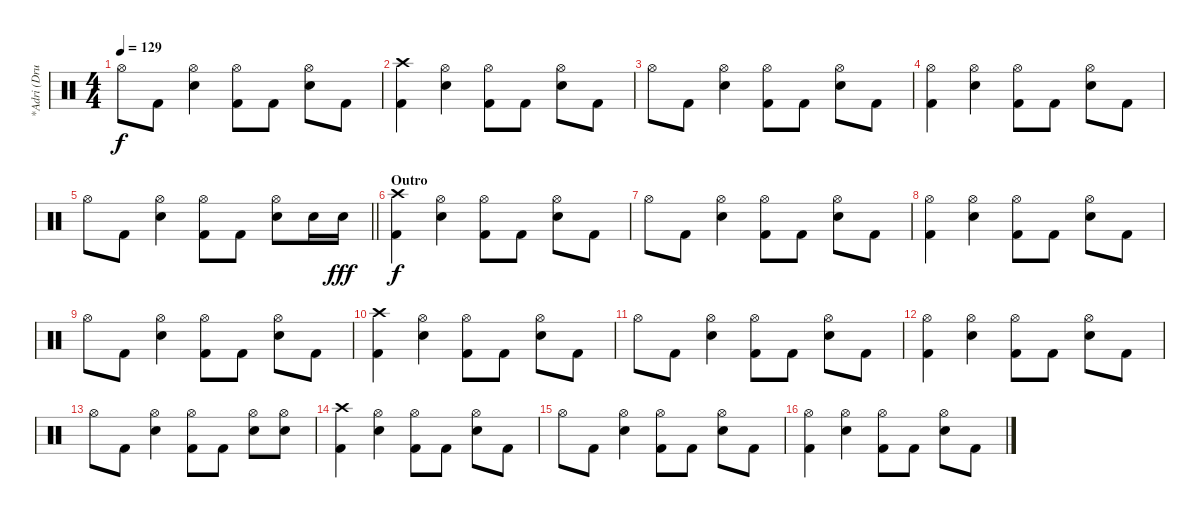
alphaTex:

\track ("*Adri (Drum)" "*Adri (Dru") {instrument percussion}
\staff {score}
\articulation defaults
\ts (4 4)
\tempo 129
\clef neutral
\ks c "Hi-Hat (open)".8{dy f} "Kick (hit) 2".8
("Hi-Hat (open)" "Snare (hit) 2").4 ("Hi-Hat (open)" "Kick (hit) 2").8 "Kick (hit) 2".8 ("Hi-Hat (open)" "Snare (hit) 2").8 "Kick (hit) 2".8 |
("Crash high (hit)" "Kick (hit) 2").4 ("Hi-Hat (open)" "Snare (hit) 2").4 ("Hi-Hat (open)" "Kick (hit) 2").8 "Kick (hit) 2".8 ("Hi-Hat (open)" "Snare (hit) 2").8 "Kick (hit) 2".8 |
"Hi-Hat (open)".8 "Kick (hit) 2".8 ("Hi-Hat (open)" "Snare (hit) 2").4 ("Hi-Hat (open)" "Kick (hit) 2").8 "Kick (hit) 2".8 ("Hi-Hat (open)" "Snare (hit) 2").8 "Kick (hit) 2".8 |
("Hi-Hat (open)" "Kick (hit) 2").4 ("Hi-Hat (open)" "Snare (hit) 2").4 ("Hi-Hat (open)" "Kick (hit) 2").8 "Kick (hit) 2".8 ("Hi-Hat (open)" "Snare (hit) 2").8 "Kick (hit) 2".8 |
\barLineRight lightlight "Hi-Hat (open)".8 "Kick (hit) 2".8
("Hi-Hat (open)" "Snare (hit) 2").4 ("Hi-Hat (open)" "Kick (hit) 2").8 "Kick (hit) 2".8 ("Hi-Hat (open)" "Snare (hit) 2").8 "Snare (hit) 2".16 "Snare (hit) 2".16{dy fff} |
\section ("" "Outro")
("Crash high (hit)" "Kick (hit) 2").4{dy f} ("Hi-Hat (open)" "Snare (hit) 2").4 ("Hi-Hat (open)" "Kick (hit) 2").8 "Kick (hit) 2".8 ("Hi-Hat (open)" "Snare (hit) 2").8 "Kick (hit) 2".8 |
"Hi-Hat (open)".8 "Kick (hit) 2".8 ("Hi-Hat (open)" "Snare (hit) 2").4 ("Hi-Hat (open)" "Kick (hit) 2").8 "Kick (hit) 2".8 ("Hi-Hat (open)" "Snare (hit) 2").8 "Kick (hit) 2".8 |
("Hi-Hat (open)" "Kick (hit) 2").4 ("Hi-Hat (open)" "Snare (hit) 2").4 ("Hi-Hat (open)" "Kick (hit) 2").8 "Kick (hit) 2".8 ("Hi-Hat (open)" "Snare (hit) 2").8 "Kick (hit) 2".8 |
"Hi-Hat (open)".8 "Kick (hit) 2".8 ("Hi-Hat (open)" "Snare (hit) 2").4 ("Hi-Hat (open)" "Kick (hit) 2").8 "Kick (hit) 2".8 ("Hi-Hat (open)" "Snare (hit) 2").8 "Kick (hit) 2".8 |
("Crash high (hit)" "Kick (hit) 2").4 ("Hi-Hat (open)" "Snare (hit) 2").4 ("Hi-Hat (open)" "Kick (hit) 2").8 "Kick (hit) 2".8 ("Hi-Hat (open)" "Snare (hit) 2").8 "Kick (hit) 2".8 |
"Hi-Hat (open)".8 "Kick (hit) 2".8 ("Hi-Hat (open)" "Snare (hit) 2").4 ("Hi-Hat (open)" "Kick (hit) 2").8 "Kick (hit) 2".8 ("Hi-Hat (open)" "Snare (hit) 2").8 "Kick (hit) 2".8 |
("Hi-Hat (open)" "Kick (hit) 2").4 ("Hi-Hat (open)" "Snare (hit) 2").4 ("Hi-Hat (open)" "Kick (hit) 2").8 "Kick (hit) 2".8 ("Hi-Hat (open)" "Snare (hit) 2").8 "Kick (hit) 2".8 |
"Hi-Hat (open)".8 "Kick (hit) 2".8 ("Hi-Hat (open)" "Snare (hit) 2").4 ("Hi-Hat (open)" "Kick (hit) 2").8 "Kick (hit) 2".8 ("Hi-Hat (open)" "Snare (hit) 2").8 ("Hi-Hat (open)" "Snare (hit) 2").8 |
("Crash high (hit)" "Kick (hit) 2").4 ("Hi-Hat (open)" "Snare (hit) 2").4 ("Hi-Hat (open)" "Kick (hit) 2").8 "Kick (hit) 2".8 ("Hi-Hat (open)" "Snare (hit) 2").8 "Kick (hit) 2".8 |
"Hi-Hat (open)".8 "Kick (hit) 2".8 ("Hi-Hat (open)" "Snare (hit) 2").4 ("Hi-Hat (open)" "Kick (hit) 2").8 "Kick (hit) 2".8 ("Hi-Hat (open)" "Snare (hit) 2").8 "Kick (hit) 2".8 |
("Hi-Hat (open)" "Kick (hit) 2").4 ("Hi-Hat (open)" "Snare (hit) 2").4 ("Hi-Hat (open)" "Kick (hit) 2").8 "Kick (hit) 2".8 ("Hi-Hat (open)" "Snare (hit) 2").8 "Kick (hit) 2".8
